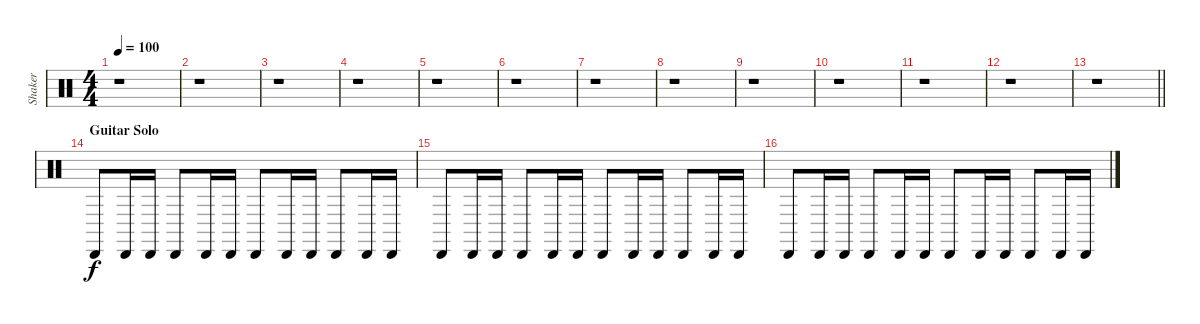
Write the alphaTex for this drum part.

\track ("Shaker" "Shaker") {instrument percussion}
\staff {score}
\articulation defaults
\ts (4 4)
\tempo 100
\clef neutral
\ks c
r.1{dy f} |
r.1 |
r.1 |
r.1 |
r.1 |
r.1 |
r.1 |
r.1 |
r.1 |
r.1 |
r.1 |
r.1 |
\barLineRight lightlight
r.1 |
\section ("" "Guitar Solo")
"Cabasa (hit)".8 "Cabasa (hit)".16 "Cabasa (hit)".16 "Cabasa (hit)".8 "Cabasa (hit)".16 "Cabasa (hit)".16 "Cabasa (hit)".8 "Cabasa (hit)".16 "Cabasa (hit)".16 "Cabasa (hit)".8 "Cabasa (hit)".16 "Cabasa (hit)".16 |
"Cabasa (hit)".8 "Cabasa (hit)".16 "Cabasa (hit)".16 "Cabasa (hit)".8 "Cabasa (hit)".16 "Cabasa (hit)".16 "Cabasa (hit)".8 "Cabasa (hit)".16 "Cabasa (hit)".16 "Cabasa (hit)".8 "Cabasa (hit)".16 "Cabasa (hit)".16 |
"Cabasa (hit)".8 "Cabasa (hit)".16 "Cabasa (hit)".16 "Cabasa (hit)".8 "Cabasa (hit)".16 "Cabasa (hit)".16 "Cabasa (hit)".8 "Cabasa (hit)".16 "Cabasa (hit)".16 "Cabasa (hit)".8 "Cabasa (hit)".16 "Cabasa (hit)".16
